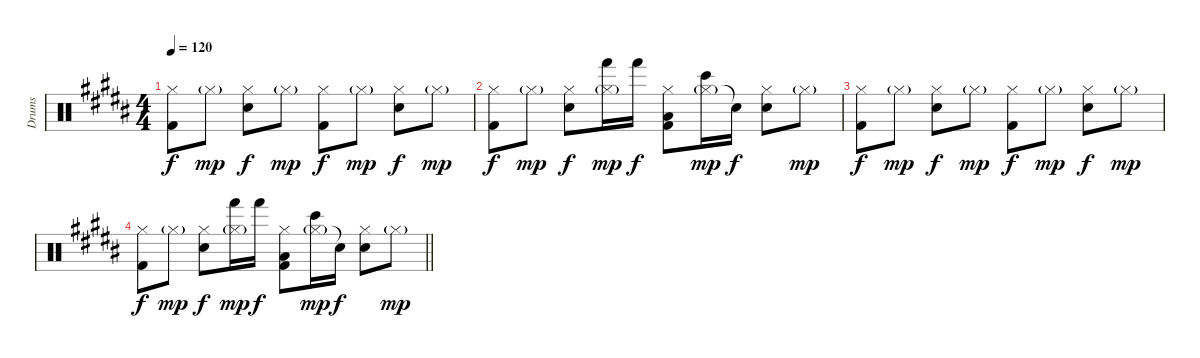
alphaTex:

\track ("Drums" "Drums") {instrument percussion}
\staff {score}
\articulation defaults
\ts (4 4)
\tempo 120
\clef neutral
\ks g#minor
("Hi-Hat (closed)" "Kick (hit) 2").8{dy f} "Hi-Hat (closed)"{g}.8{dy mp} ("Hi-Hat (closed)" "Electric Snare (hit)").8{dy f} "Hi-Hat (closed)"{g}.8{dy mp} ("Hi-Hat (closed)" "Kick (hit) 2").8{dy f} "Hi-Hat (closed)"{g}.8{dy mp} ("Hi-Hat (closed)" "Electric Snare (hit)").8{dy f} "Hi-Hat (closed)"{g}.8{dy mp} |
("Hi-Hat (closed)" "Kick (hit) 2").8{dy f} "Hi-Hat (closed)"{g}.8{dy mp} ("Hi-Hat (closed)" "Electric Snare (hit)").8{dy f} ("Hi-Hat (closed)"{g} "Hand (hit)").16{dy mp} "Hand (hit)".16{dy f} ("Hi-Hat (closed)" "Low Tom (hit)" "Kick (hit) 2").8 ("Hi-Hat (closed)"{g} "Bongo High (hit)").16{dy mp} "Snare (hit)"{t}.16{dy f} ("Hi-Hat (closed)" "Electric Snare (hit)").8 "Hi-Hat (closed)"{g}.8{dy mp} |
("Hi-Hat (closed)" "Kick (hit) 2").8{dy f} "Hi-Hat (closed)"{g}.8{dy mp} ("Hi-Hat (closed)" "Electric Snare (hit)").8{dy f} "Hi-Hat (closed)"{g}.8{dy mp} ("Hi-Hat (closed)" "Kick (hit) 2").8{dy f} "Hi-Hat (closed)"{g}.8{dy mp} ("Hi-Hat (closed)" "Electric Snare (hit)").8{dy f} "Hi-Hat (closed)"{g}.8{dy mp} |
\barLineRight lightlight
("Hi-Hat (closed)" "Kick (hit) 2").8{dy f} "Hi-Hat (closed)"{g}.8{dy mp} ("Hi-Hat (closed)" "Electric Snare (hit)").8{dy f} ("Hi-Hat (closed)"{g} "Hand (hit)").16{dy mp} "Hand (hit)".16{dy f} ("Hi-Hat (closed)" "Low Tom (hit)" "Kick (hit) 2").8 ("Hi-Hat (closed)"{g} "Bongo High (hit)").16{dy mp} "Snare (hit)"{t}.16{dy f} ("Hi-Hat (closed)" "Electric Snare (hit)").8 "Hi-Hat (closed)"{g}.8{dy mp}
